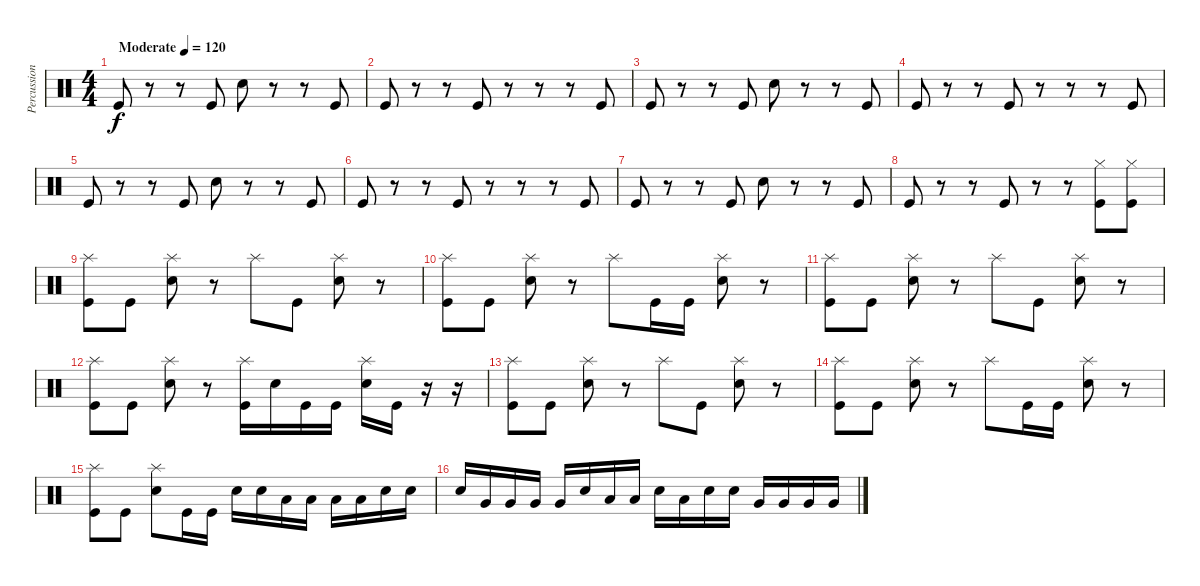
\track ("Percussion" "Percussion") {instrument percussion}
\staff {score}
\articulation defaults
\ts (4 4)
\tempo (120 "Moderate")
\clef neutral
\ks c "Kick (hit)".8{dy f volume 10}
r.8 r.8 "Kick (hit)".8 "Snare (hit) 2".8 r.8 r.8 "Kick (hit)".8 |
"Kick (hit)".8 r.8 r.8 "Kick (hit)".8 r.8 r.8 r.8 "Kick (hit)".8 |
"Kick (hit)".8 r.8 r.8 "Kick (hit)".8 "Snare (hit) 2".8 r.8 r.8 "Kick (hit)".8 |
"Kick (hit)".8 r.8 r.8 "Kick (hit)".8 r.8 r.8 r.8 "Kick (hit)".8 |
"Kick (hit)".8 r.8 r.8 "Kick (hit)".8 "Snare (hit) 2".8 r.8 r.8 "Kick (hit)".8 |
"Kick (hit)".8 r.8 r.8 "Kick (hit)".8 r.8 r.8 r.8 "Kick (hit)".8 |
"Kick (hit)".8 r.8 r.8 "Kick (hit)".8 "Snare (hit) 2".8 r.8 r.8 "Kick (hit)".8 |
"Kick (hit)".8 r.8 r.8 "Kick (hit)".8 r.8 r.8 ("Hi-Hat (closed)" "Kick (hit)").8 ("Hi-Hat (closed)" "Kick (hit)").8 |
("Splash (hit)" "Kick (hit)").8{volume 16} "Kick (hit)".8 ("Splash (hit)" "Electric Snare (hit)").8 r.8 "Splash (hit)".8 "Kick (hit)".8 ("Splash (hit)" "Electric Snare (hit)").8 r.8 |
("Splash (hit)" "Kick (hit)").8 "Kick (hit)".8 ("Splash (hit)" "Electric Snare (hit)").8 r.8 "Splash (hit)".8 "Kick (hit)".16 "Kick (hit)".16 ("Splash (hit)" "Electric Snare (hit)").8 r.8 |
("Splash (hit)" "Kick (hit)").8 "Kick (hit)".8 ("Splash (hit)" "Electric Snare (hit)").8 r.8 "Splash (hit)".8 "Kick (hit)".8 ("Splash (hit)" "Electric Snare (hit)").8 r.8 |
("Splash (hit)" "Kick (hit)").8 "Kick (hit)".8 ("Splash (hit)" "Electric Snare (hit)").8 r.8 ("Splash (hit)" "Kick (hit)").16 "Electric Snare (hit)".16 "Kick (hit)".16 "Kick (hit)".16 ("Splash (hit)" "Electric Snare (hit)").16 "Kick (hit)".16 r.16 r.16 |
("Splash (hit)" "Kick (hit)").8 "Kick (hit)".8 ("Splash (hit)" "Electric Snare (hit)").8 r.8 "Splash (hit)".8 "Kick (hit)".8 ("Splash (hit)" "Electric Snare (hit)").8 r.8 |
("Splash (hit)" "Kick (hit)").8 "Kick (hit)".8 ("Splash (hit)" "Electric Snare (hit)").8 r.8 "Splash (hit)".8 "Kick (hit)".16 "Kick (hit)".16 ("Splash (hit)" "Electric Snare (hit)").8 r.8 |
("Splash (hit)" "Kick (hit)").8 "Kick (hit)".8 ("Splash (hit)" "Electric Snare (hit)").8 "Kick (hit)".16 "Kick (hit)".16 "Electric Snare (hit)".16 "Electric Snare (hit)".16 "Low Tom (hit)".16 "Low Tom (hit)".16 "Low Tom (hit)".16 "Low Tom (hit)".16 "Electric Snare (hit)".16 "Electric Snare (hit)".16 |
"Electric Snare (hit)".16 "Very Low Tom (hit)".16 "Very Low Tom (hit)".16 "Very Low Tom (hit)".16 "Very Low Tom (hit)".16 "Electric Snare (hit)".16 "Low Tom (hit)".16 "Low Tom (hit)".16 "Electric Snare (hit)".16 "Low Tom (hit)".16 "Electric Snare (hit)".16 "Electric Snare (hit)".16 "Very Low Tom (hit)".16 "Very Low Tom (hit)".16 "Very Low Tom (hit)".16 "Very Low Tom (hit)".16
